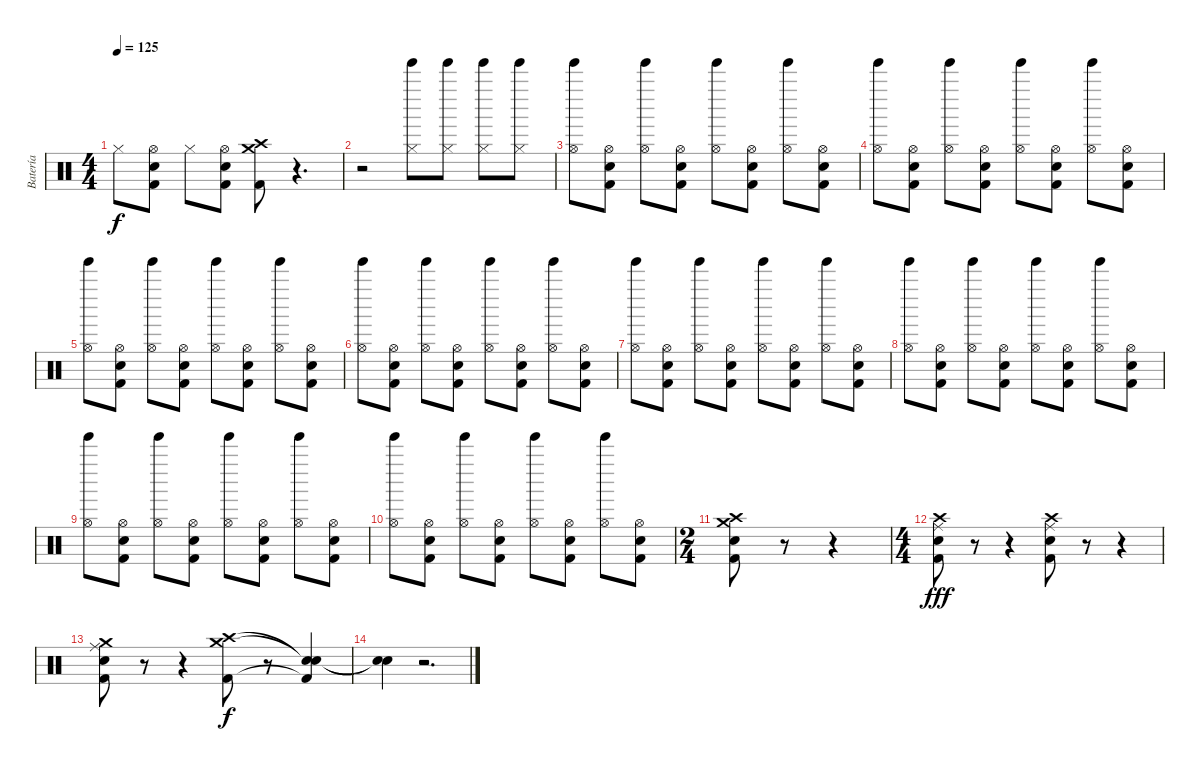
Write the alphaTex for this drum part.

\track ("Batería" "Batería") {instrument percussion}
\staff {score}
\articulation defaults
\ts (4 4)
\tempo 125
\clef neutral
\ks c "Hi-Hat (closed)".8{dy f}
("Snare (hit) 2" "Hi-Hat (open)" "Kick (hit) 2").8 "Hi-Hat (closed)".8 ("Snare (hit) 2" "Hi-Hat (open)" "Kick (hit) 2").8 ("Crash medium (hit)" "Crash high (hit)" "Kick (hit) 2").8 r.4{d} |
r.2 ("Tinkle Bell (hit)" "Hi-Hat (closed)").8 ("Tinkle Bell (hit)" "Hi-Hat (closed)").8 ("Tinkle Bell (hit)" "Hi-Hat (closed)").8 ("Tinkle Bell (hit)" "Hi-Hat (closed)").8 |
("Tinkle Bell (hit)" "Hi-Hat (open)").8 ("Snare (hit) 2" "Hi-Hat (open)" "Kick (hit) 2").8 ("Tinkle Bell (hit)" "Hi-Hat (open)").8 ("Snare (hit) 2" "Hi-Hat (open)" "Kick (hit) 2").8 ("Tinkle Bell (hit)" "Hi-Hat (open)").8 ("Snare (hit) 2" "Hi-Hat (open)" "Kick (hit) 2").8 ("Tinkle Bell (hit)" "Hi-Hat (open)").8 ("Snare (hit) 2" "Hi-Hat (open)" "Kick (hit) 2").8 |
("Tinkle Bell (hit)" "Hi-Hat (open)").8 ("Snare (hit) 2" "Hi-Hat (open)" "Kick (hit) 2").8 ("Tinkle Bell (hit)" "Hi-Hat (open)").8 ("Snare (hit) 2" "Hi-Hat (open)" "Kick (hit) 2").8 ("Tinkle Bell (hit)" "Hi-Hat (open)").8 ("Snare (hit) 2" "Hi-Hat (open)" "Kick (hit) 2").8 ("Tinkle Bell (hit)" "Hi-Hat (open)").8 ("Snare (hit) 2" "Hi-Hat (open)" "Kick (hit) 2").8 |
("Tinkle Bell (hit)" "Hi-Hat (open)").8 ("Snare (hit) 2" "Hi-Hat (open)" "Kick (hit) 2").8 ("Tinkle Bell (hit)" "Hi-Hat (open)").8 ("Snare (hit) 2" "Hi-Hat (open)" "Kick (hit) 2").8 ("Tinkle Bell (hit)" "Hi-Hat (open)").8 ("Snare (hit) 2" "Hi-Hat (open)" "Kick (hit) 2").8 ("Tinkle Bell (hit)" "Hi-Hat (open)").8 ("Snare (hit) 2" "Hi-Hat (open)" "Kick (hit) 2").8 |
("Tinkle Bell (hit)" "Hi-Hat (open)").8 ("Snare (hit) 2" "Hi-Hat (open)" "Kick (hit) 2").8 ("Tinkle Bell (hit)" "Hi-Hat (open)").8 ("Snare (hit) 2" "Hi-Hat (open)" "Kick (hit) 2").8 ("Tinkle Bell (hit)" "Hi-Hat (open)").8 ("Snare (hit) 2" "Hi-Hat (open)" "Kick (hit) 2").8 ("Tinkle Bell (hit)" "Hi-Hat (open)").8 ("Snare (hit) 2" "Hi-Hat (open)" "Kick (hit) 2").8 |
("Tinkle Bell (hit)" "Hi-Hat (open)").8 ("Snare (hit) 2" "Hi-Hat (open)" "Kick (hit) 2").8 ("Tinkle Bell (hit)" "Hi-Hat (open)").8 ("Snare (hit) 2" "Hi-Hat (open)" "Kick (hit) 2").8 ("Tinkle Bell (hit)" "Hi-Hat (open)").8 ("Snare (hit) 2" "Hi-Hat (open)" "Kick (hit) 2").8 ("Tinkle Bell (hit)" "Hi-Hat (open)").8 ("Snare (hit) 2" "Hi-Hat (open)" "Kick (hit) 2").8 |
("Tinkle Bell (hit)" "Hi-Hat (open)").8 ("Snare (hit) 2" "Hi-Hat (open)" "Kick (hit) 2").8 ("Tinkle Bell (hit)" "Hi-Hat (open)").8 ("Snare (hit) 2" "Hi-Hat (open)" "Kick (hit) 2").8 ("Tinkle Bell (hit)" "Hi-Hat (open)").8 ("Snare (hit) 2" "Hi-Hat (open)" "Kick (hit) 2").8 ("Tinkle Bell (hit)" "Hi-Hat (open)").8 ("Snare (hit) 2" "Hi-Hat (open)" "Kick (hit) 2").8 |
("Tinkle Bell (hit)" "Hi-Hat (open)").8 ("Snare (hit) 2" "Hi-Hat (open)" "Kick (hit) 2").8 ("Tinkle Bell (hit)" "Hi-Hat (open)").8 ("Snare (hit) 2" "Hi-Hat (open)" "Kick (hit) 2").8 ("Tinkle Bell (hit)" "Hi-Hat (open)").8 ("Snare (hit) 2" "Hi-Hat (open)" "Kick (hit) 2").8 ("Tinkle Bell (hit)" "Hi-Hat (open)").8 ("Snare (hit) 2" "Hi-Hat (open)" "Kick (hit) 2").8 |
("Tinkle Bell (hit)" "Hi-Hat (open)").8 ("Snare (hit) 2" "Hi-Hat (open)" "Kick (hit) 2").8 ("Tinkle Bell (hit)" "Hi-Hat (open)").8 ("Snare (hit) 2" "Hi-Hat (open)" "Kick (hit) 2").8 ("Tinkle Bell (hit)" "Hi-Hat (open)").8 ("Snare (hit) 2" "Hi-Hat (open)" "Kick (hit) 2").8 ("Tinkle Bell (hit)" "Hi-Hat (open)").8 ("Snare (hit) 2" "Hi-Hat (open)" "Kick (hit) 2").8 |
\ts (2 4)
("Crash medium (hit)" "Crash high (hit)" "Snare (hit) 2" "Kick (hit) 2").8 r.8 r.4 |
\ts (4 4)
("Crash high (hit)" "Ride (middle)" "Snare (hit) 2" "Kick (hit) 2").8{dy fff} r.8 r.4 ("Crash high (hit)" "Ride (middle)" "Snare (hit) 2" "Kick (hit) 2").8 r.8 r.4 |
("Crash medium (hit)" "Ride (middle)" "Snare (hit) 2" "Kick (hit) 2").8 r.8 r.4 ("Crash medium (hit)" "Crash high (hit)" "Kick (hit) 2").8{dy f} r.8 ("Snare (hit)"{t} "Snare (hit)"{t} "Kick (hit) 2"{t}).4 |
("Snare (hit)"{t} "Snare (hit)"{t}).4 r.2{d}
